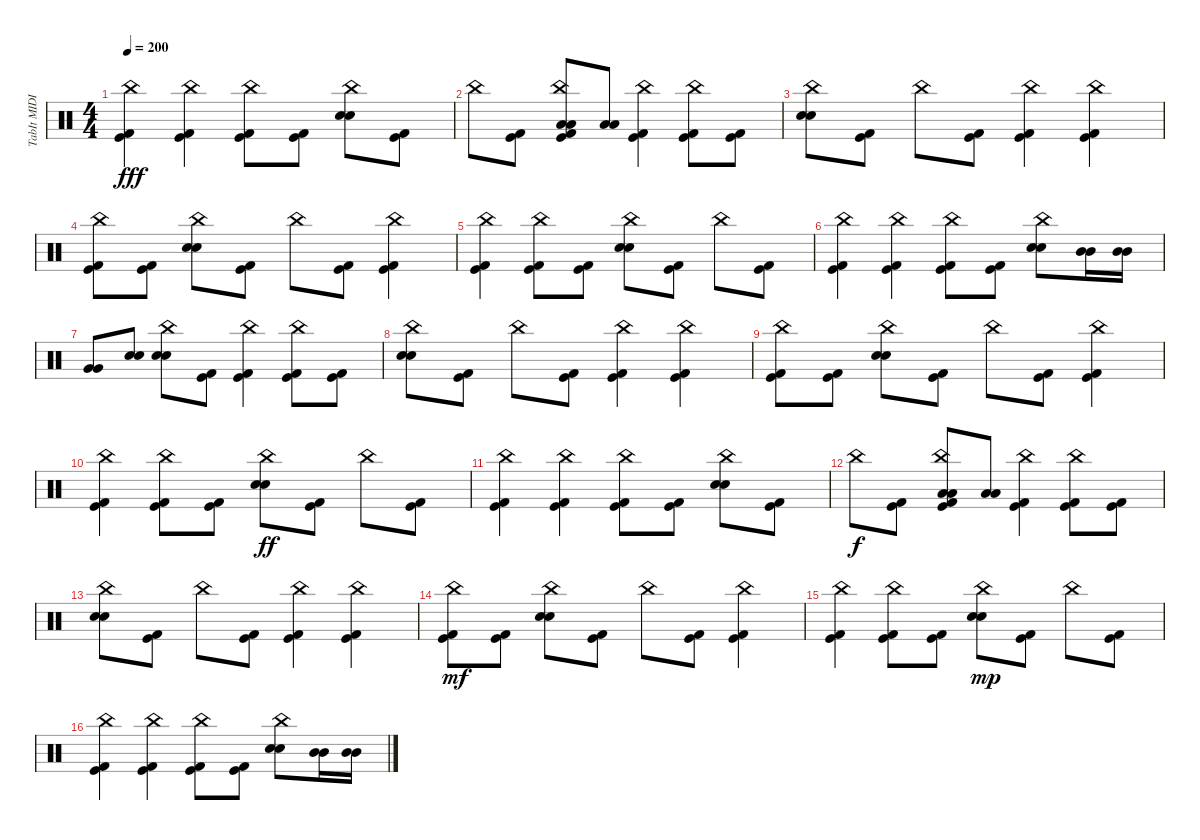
\track ("TabIt MIDI - Track 4" "TabIt MIDI") {instrument percussion}
\staff {score}
\articulation defaults
\ts (4 4)
\tempo 200
\clef neutral
\ks c
("Kick (hit)" "Kick (hit) 2" "China (hit)").4{dy fff} ("Kick (hit)" "Kick (hit) 2" "China (hit)").4 ("Kick (hit)" "Kick (hit) 2" "China (hit)").8 ("Kick (hit)" "Kick (hit) 2").8 ("Electric Snare (hit)" "Electric Snare (hit)" "China (hit)").8 ("Kick (hit)" "Kick (hit) 2").8 |
"China (hit)".8 ("Kick (hit)" "Kick (hit) 2").8 ("Kick (hit)" "Kick (hit) 2" "Low Tom (hit)" "Low Tom (hit)" "China (hit)").8 ("Low Tom (hit)" "Low Tom (hit)").8 ("Kick (hit)" "Kick (hit) 2" "China (hit)").4 ("Kick (hit)" "Kick (hit) 2" "China (hit)").8 ("Kick (hit)" "Kick (hit) 2").8 |
("Electric Snare (hit)" "Electric Snare (hit)" "China (hit)").8 ("Kick (hit)" "Kick (hit) 2").8 "China (hit)".8 ("Kick (hit)" "Kick (hit) 2").8 ("Kick (hit)" "Kick (hit) 2" "China (hit)").4 ("Kick (hit)" "Kick (hit) 2" "China (hit)").4 |
("Kick (hit)" "Kick (hit) 2" "China (hit)").8 ("Kick (hit)" "Kick (hit) 2").8 ("Electric Snare (hit)" "Electric Snare (hit)" "China (hit)").8 ("Kick (hit)" "Kick (hit) 2").8 "China (hit)".8 ("Kick (hit)" "Kick (hit) 2").8 ("Kick (hit)" "Kick (hit) 2" "China (hit)").4 |
("Kick (hit)" "Kick (hit) 2" "China (hit)").4 ("Kick (hit)" "Kick (hit) 2" "China (hit)").8 ("Kick (hit)" "Kick (hit) 2").8 ("Electric Snare (hit)" "Electric Snare (hit)" "China (hit)").8 ("Kick (hit)" "Kick (hit) 2").8 "China (hit)".8 ("Kick (hit)" "Kick (hit) 2").8 |
("Kick (hit)" "Kick (hit) 2" "China (hit)").4 ("Kick (hit)" "Kick (hit) 2" "China (hit)").4 ("Kick (hit)" "Kick (hit) 2" "China (hit)").8 ("Kick (hit)" "Kick (hit) 2").8 ("Electric Snare (hit)" "Electric Snare (hit)" "China (hit)").8 ("Mid Tom (hit)" "Mid Tom (hit)").16 ("Mid Tom (hit)" "Mid Tom (hit)").16 |
("Very Low Tom (hit)" "Very Low Tom (hit)").8 ("Electric Snare (hit)" "Electric Snare (hit)").8 ("Electric Snare (hit)" "Electric Snare (hit)" "China (hit)").8 ("Kick (hit)" "Kick (hit) 2").8 ("Kick (hit)" "Kick (hit) 2" "China (hit)").4 ("Kick (hit)" "Kick (hit) 2" "China (hit)").8 ("Kick (hit)" "Kick (hit) 2").8 |
("Electric Snare (hit)" "Electric Snare (hit)" "China (hit)").8 ("Kick (hit)" "Kick (hit) 2").8 "China (hit)".8 ("Kick (hit)" "Kick (hit) 2").8 ("Kick (hit)" "Kick (hit) 2" "China (hit)").4 ("Kick (hit)" "Kick (hit) 2" "China (hit)").4 |
("Kick (hit)" "Kick (hit) 2" "China (hit)").8 ("Kick (hit)" "Kick (hit) 2").8 ("Electric Snare (hit)" "Electric Snare (hit)" "China (hit)").8 ("Kick (hit)" "Kick (hit) 2").8 "China (hit)".8 ("Kick (hit)" "Kick (hit) 2").8 ("Kick (hit)" "Kick (hit) 2" "China (hit)").4 |
("Kick (hit)" "Kick (hit) 2" "China (hit)").4 ("Kick (hit)" "Kick (hit) 2" "China (hit)").8 ("Kick (hit)" "Kick (hit) 2").8 ("Electric Snare (hit)" "Electric Snare (hit)" "China (hit)").8{dy ff} ("Kick (hit)" "Kick (hit) 2").8 "China (hit)".8 ("Kick (hit)" "Kick (hit) 2").8 |
("Kick (hit)" "Kick (hit) 2" "China (hit)").4 ("Kick (hit)" "Kick (hit) 2" "China (hit)").4 ("Kick (hit)" "Kick (hit) 2" "China (hit)").8 ("Kick (hit)" "Kick (hit) 2").8 ("Electric Snare (hit)" "Electric Snare (hit)" "China (hit)").8 ("Kick (hit)" "Kick (hit) 2").8 |
"China (hit)".8{dy f} ("Kick (hit)" "Kick (hit) 2").8 ("Kick (hit)" "Kick (hit) 2" "Low Tom (hit)" "Low Tom (hit)" "China (hit)").8 ("Low Tom (hit)" "Low Tom (hit)").8 ("Kick (hit)" "Kick (hit) 2" "China (hit)").4 ("Kick (hit)" "Kick (hit) 2" "China (hit)").8 ("Kick (hit)" "Kick (hit) 2").8 |
("Electric Snare (hit)" "Electric Snare (hit)" "China (hit)").8 ("Kick (hit)" "Kick (hit) 2").8 "China (hit)".8 ("Kick (hit)" "Kick (hit) 2").8 ("Kick (hit)" "Kick (hit) 2" "China (hit)").4 ("Kick (hit)" "Kick (hit) 2" "China (hit)").4 |
("Kick (hit)" "Kick (hit) 2" "China (hit)").8{dy mf} ("Kick (hit)" "Kick (hit) 2").8 ("Electric Snare (hit)" "Electric Snare (hit)" "China (hit)").8 ("Kick (hit)" "Kick (hit) 2").8 "China (hit)".8 ("Kick (hit)" "Kick (hit) 2").8 ("Kick (hit)" "Kick (hit) 2" "China (hit)").4 |
("Kick (hit)" "Kick (hit) 2" "China (hit)").4 ("Kick (hit)" "Kick (hit) 2" "China (hit)").8 ("Kick (hit)" "Kick (hit) 2").8 ("Electric Snare (hit)" "Electric Snare (hit)" "China (hit)").8{dy mp} ("Kick (hit)" "Kick (hit) 2").8 "China (hit)".8 ("Kick (hit)" "Kick (hit) 2").8 |
("Kick (hit)" "Kick (hit) 2" "China (hit)").4 ("Kick (hit)" "Kick (hit) 2" "China (hit)").4 ("Kick (hit)" "Kick (hit) 2" "China (hit)").8 ("Kick (hit)" "Kick (hit) 2").8 ("Electric Snare (hit)" "Electric Snare (hit)" "China (hit)").8 ("Mid Tom (hit)" "Mid Tom (hit)").16 ("Mid Tom (hit)" "Mid Tom (hit)").16
